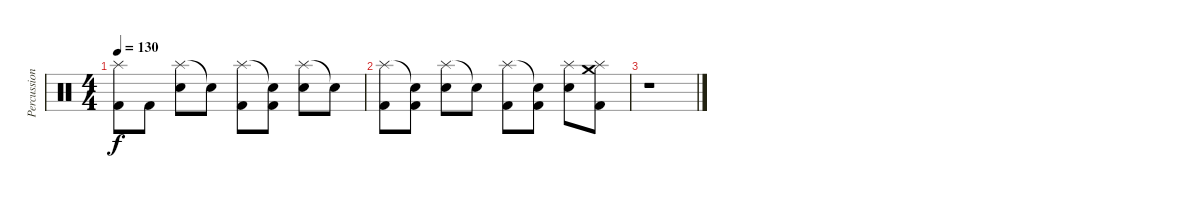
\track ("Percussion" "Percussion") {instrument percussion}
\staff {score}
\articulation defaults
\ts (4 4)
\tempo 130
\clef neutral
\ks c
("Splash (hit)" "Kick (hit) 2").8{dy f} "Kick (hit) 2".8 ("Splash (hit)" "Electric Snare (hit)").8 "Snare (hit)"{t}.8 ("Splash (hit)" "Kick (hit) 2").8 ("Snare (hit)"{t} "Kick (hit) 2").8 ("Splash (hit)" "Electric Snare (hit)").8 "Snare (hit)"{t}.8 |
("Splash (hit)" "Kick (hit) 2").8 ("Snare (hit)"{t} "Kick (hit) 2").8 ("Splash (hit)" "Electric Snare (hit)").8 "Snare (hit)"{t}.8 ("Splash (hit)" "Kick (hit) 2").8 ("Snare (hit)"{t} "Kick (hit) 2").8 ("Splash (hit)" "Electric Snare (hit)").8 ("Crash medium (hit)" "Splash (hit)" "Kick (hit) 2").8 |
r.1
